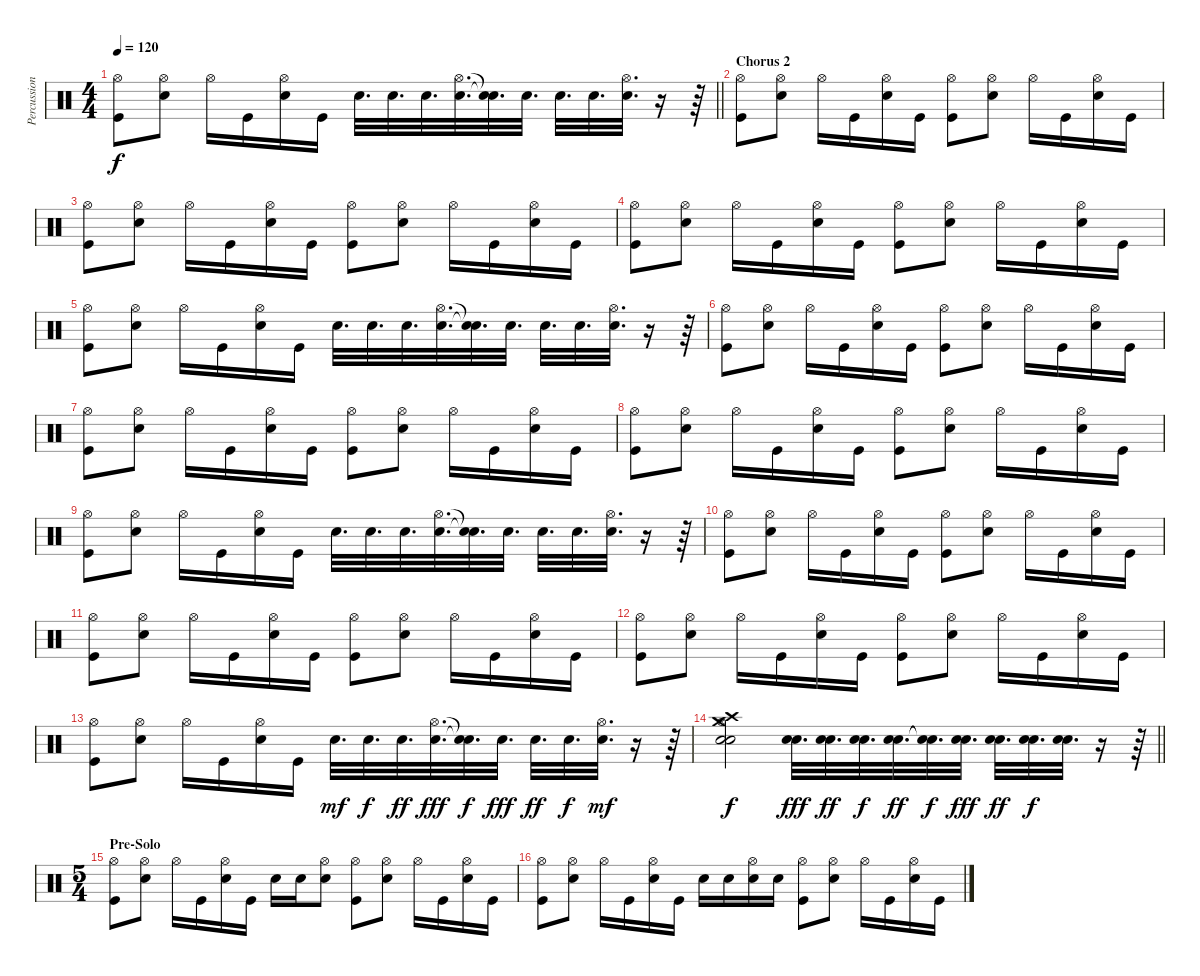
\track ("Percussion" "Percussion") {instrument percussion}
\staff {score}
\articulation defaults
\ts (4 4)
\tempo 120
\clef neutral
\barLineRight lightlight
\ks c
("Hi-Hat (open)" "Kick (hit)").8{dy f} ("Hi-Hat (open)" "Electric Snare (hit)").8 "Hi-Hat (open)".16 "Kick (hit)".16 ("Hi-Hat (open)" "Electric Snare (hit)").16 "Kick (hit)".16 "Electric Snare (hit)".32{d} "Electric Snare (hit)".32{d} "Electric Snare (hit)".32{d} ("Hi-Hat (open)" "Electric Snare (hit)").32{d} ("Snare (hit)"{t} "Snare (hit)"{t}).32{d} "Electric Snare (hit)".32{d} "Electric Snare (hit)".32{d} "Electric Snare (hit)".32{d} ("Hi-Hat (open)" "Electric Snare (hit)").32{d} r.16 r.64 |
\section ("" "Chorus 2")
("Hi-Hat (open)" "Kick (hit)").8 ("Hi-Hat (open)" "Electric Snare (hit)").8 "Hi-Hat (open)".16 "Kick (hit)".16 ("Hi-Hat (open)" "Electric Snare (hit)").16 "Kick (hit)".16 ("Hi-Hat (open)" "Kick (hit)").8 ("Hi-Hat (open)" "Electric Snare (hit)").8 "Hi-Hat (open)".16 "Kick (hit)".16 ("Hi-Hat (open)" "Electric Snare (hit)").16 "Kick (hit)".16 |
("Hi-Hat (open)" "Kick (hit)").8 ("Hi-Hat (open)" "Electric Snare (hit)").8 "Hi-Hat (open)".16 "Kick (hit)".16 ("Hi-Hat (open)" "Electric Snare (hit)").16 "Kick (hit)".16 ("Hi-Hat (open)" "Kick (hit)").8 ("Hi-Hat (open)" "Electric Snare (hit)").8 "Hi-Hat (open)".16 "Kick (hit)".16 ("Hi-Hat (open)" "Electric Snare (hit)").16 "Kick (hit)".16 |
("Hi-Hat (open)" "Kick (hit)").8 ("Hi-Hat (open)" "Electric Snare (hit)").8 "Hi-Hat (open)".16 "Kick (hit)".16 ("Hi-Hat (open)" "Electric Snare (hit)").16 "Kick (hit)".16 ("Hi-Hat (open)" "Kick (hit)").8 ("Hi-Hat (open)" "Electric Snare (hit)").8 "Hi-Hat (open)".16 "Kick (hit)".16 ("Hi-Hat (open)" "Electric Snare (hit)").16 "Kick (hit)".16 |
("Hi-Hat (open)" "Kick (hit)").8 ("Hi-Hat (open)" "Electric Snare (hit)").8 "Hi-Hat (open)".16 "Kick (hit)".16 ("Hi-Hat (open)" "Electric Snare (hit)").16 "Kick (hit)".16 "Electric Snare (hit)".32{d} "Electric Snare (hit)".32{d} "Electric Snare (hit)".32{d} ("Hi-Hat (open)" "Electric Snare (hit)").32{d} ("Snare (hit)"{t} "Snare (hit)"{t}).32{d} "Electric Snare (hit)".32{d} "Electric Snare (hit)".32{d} "Electric Snare (hit)".32{d} ("Hi-Hat (open)" "Electric Snare (hit)").32{d} r.16 r.64 |
("Hi-Hat (open)" "Kick (hit)").8 ("Hi-Hat (open)" "Electric Snare (hit)").8 "Hi-Hat (open)".16 "Kick (hit)".16 ("Hi-Hat (open)" "Electric Snare (hit)").16 "Kick (hit)".16 ("Hi-Hat (open)" "Kick (hit)").8 ("Hi-Hat (open)" "Electric Snare (hit)").8 "Hi-Hat (open)".16 "Kick (hit)".16 ("Hi-Hat (open)" "Electric Snare (hit)").16 "Kick (hit)".16 |
("Hi-Hat (open)" "Kick (hit)").8 ("Hi-Hat (open)" "Electric Snare (hit)").8 "Hi-Hat (open)".16 "Kick (hit)".16 ("Hi-Hat (open)" "Electric Snare (hit)").16 "Kick (hit)".16 ("Hi-Hat (open)" "Kick (hit)").8 ("Hi-Hat (open)" "Electric Snare (hit)").8 "Hi-Hat (open)".16 "Kick (hit)".16 ("Hi-Hat (open)" "Electric Snare (hit)").16 "Kick (hit)".16 |
("Hi-Hat (open)" "Kick (hit)").8 ("Hi-Hat (open)" "Electric Snare (hit)").8 "Hi-Hat (open)".16 "Kick (hit)".16 ("Hi-Hat (open)" "Electric Snare (hit)").16 "Kick (hit)".16 ("Hi-Hat (open)" "Kick (hit)").8 ("Hi-Hat (open)" "Electric Snare (hit)").8 "Hi-Hat (open)".16 "Kick (hit)".16 ("Hi-Hat (open)" "Electric Snare (hit)").16 "Kick (hit)".16 |
("Hi-Hat (open)" "Kick (hit)").8 ("Hi-Hat (open)" "Electric Snare (hit)").8 "Hi-Hat (open)".16 "Kick (hit)".16 ("Hi-Hat (open)" "Electric Snare (hit)").16 "Kick (hit)".16 "Electric Snare (hit)".32{d} "Electric Snare (hit)".32{d} "Electric Snare (hit)".32{d} ("Hi-Hat (open)" "Electric Snare (hit)").32{d} ("Snare (hit)"{t} "Snare (hit)"{t}).32{d} "Electric Snare (hit)".32{d} "Electric Snare (hit)".32{d} "Electric Snare (hit)".32{d} ("Hi-Hat (open)" "Electric Snare (hit)").32{d} r.16 r.64 |
("Hi-Hat (open)" "Kick (hit)").8 ("Hi-Hat (open)" "Electric Snare (hit)").8 "Hi-Hat (open)".16 "Kick (hit)".16 ("Hi-Hat (open)" "Electric Snare (hit)").16 "Kick (hit)".16 ("Hi-Hat (open)" "Kick (hit)").8 ("Hi-Hat (open)" "Electric Snare (hit)").8 "Hi-Hat (open)".16 "Kick (hit)".16 ("Hi-Hat (open)" "Electric Snare (hit)").16 "Kick (hit)".16 |
("Hi-Hat (open)" "Kick (hit)").8 ("Hi-Hat (open)" "Electric Snare (hit)").8 "Hi-Hat (open)".16 "Kick (hit)".16 ("Hi-Hat (open)" "Electric Snare (hit)").16 "Kick (hit)".16 ("Hi-Hat (open)" "Kick (hit)").8 ("Hi-Hat (open)" "Electric Snare (hit)").8 "Hi-Hat (open)".16 "Kick (hit)".16 ("Hi-Hat (open)" "Electric Snare (hit)").16 "Kick (hit)".16 |
("Hi-Hat (open)" "Kick (hit)").8 ("Hi-Hat (open)" "Electric Snare (hit)").8 "Hi-Hat (open)".16 "Kick (hit)".16 ("Hi-Hat (open)" "Electric Snare (hit)").16 "Kick (hit)".16 ("Hi-Hat (open)" "Kick (hit)").8 ("Hi-Hat (open)" "Electric Snare (hit)").8 "Hi-Hat (open)".16 "Kick (hit)".16 ("Hi-Hat (open)" "Electric Snare (hit)").16 "Kick (hit)".16 |
("Hi-Hat (open)" "Kick (hit)").8 ("Hi-Hat (open)" "Electric Snare (hit)").8 "Hi-Hat (open)".16 "Kick (hit)".16 ("Hi-Hat (open)" "Electric Snare (hit)").16 "Kick (hit)".16 "Electric Snare (hit)".32{d dy mf} "Electric Snare (hit)".32{d dy f} "Electric Snare (hit)".32{d dy ff} ("Hi-Hat (open)" "Electric Snare (hit)").32{d dy fff} ("Snare (hit)"{t} "Snare (hit)"{t}).32{d dy f} "Electric Snare (hit)".32{d dy fff} "Electric Snare (hit)".32{d dy ff} "Electric Snare (hit)".32{d dy f} ("Hi-Hat (open)" "Electric Snare (hit)").32{d dy mf} r.16 r.64 |
\barLineRight lightlight
("Crash high (hit)" "Crash medium (hit)" "Snare (hit) 2" "Electric Snare (hit)" "Hi-Hat (open)").2{dy f} ("Electric Snare (hit)" "Electric Snare (hit)").32{d dy fff} ("Electric Snare (hit)" "Electric Snare (hit)").32{d dy ff} ("Electric Snare (hit)" "Electric Snare (hit)").32{d dy f} ("Electric Snare (hit)" "Electric Snare (hit)").32{d dy ff} ("Snare (hit)"{t} "Snare (hit)"{t}).32{d dy f} ("Electric Snare (hit)" "Electric Snare (hit)").32{d dy fff} ("Electric Snare (hit)" "Electric Snare (hit)").32{d dy ff} ("Electric Snare (hit)" "Electric Snare (hit)").32{d dy f} ("Electric Snare (hit)" "Electric Snare (hit)").32{d} r.16 r.64 |
\ts (5 4)
\section ("" "Pre-Solo")
("Hi-Hat (open)" "Kick (hit)").8 ("Hi-Hat (open)" "Electric Snare (hit)").8 "Hi-Hat (open)".16 "Kick (hit)".16 ("Hi-Hat (open)" "Electric Snare (hit)").16 "Kick (hit)".16 "Electric Snare (hit)".16 "Electric Snare (hit)".16 ("Electric Snare (hit)" "Hi-Hat (open)").8 ("Hi-Hat (open)" "Kick (hit)").8 ("Hi-Hat (open)" "Electric Snare (hit)").8 "Hi-Hat (open)".16 "Kick (hit)".16 ("Hi-Hat (open)" "Electric Snare (hit)").16 "Kick (hit)".16 |
("Hi-Hat (open)" "Kick (hit)").8 ("Hi-Hat (open)" "Electric Snare (hit)").8 "Hi-Hat (open)".16 "Kick (hit)".16 ("Hi-Hat (open)" "Electric Snare (hit)").16 "Kick (hit)".16 "Electric Snare (hit)".16 "Electric Snare (hit)".16 ("Electric Snare (hit)" "Hi-Hat (open)").16 "Electric Snare (hit)".16 ("Hi-Hat (open)" "Kick (hit)").8 ("Hi-Hat (open)" "Electric Snare (hit)").8 "Hi-Hat (open)".16 "Kick (hit)".16 ("Hi-Hat (open)" "Electric Snare (hit)").16 "Kick (hit)".16
